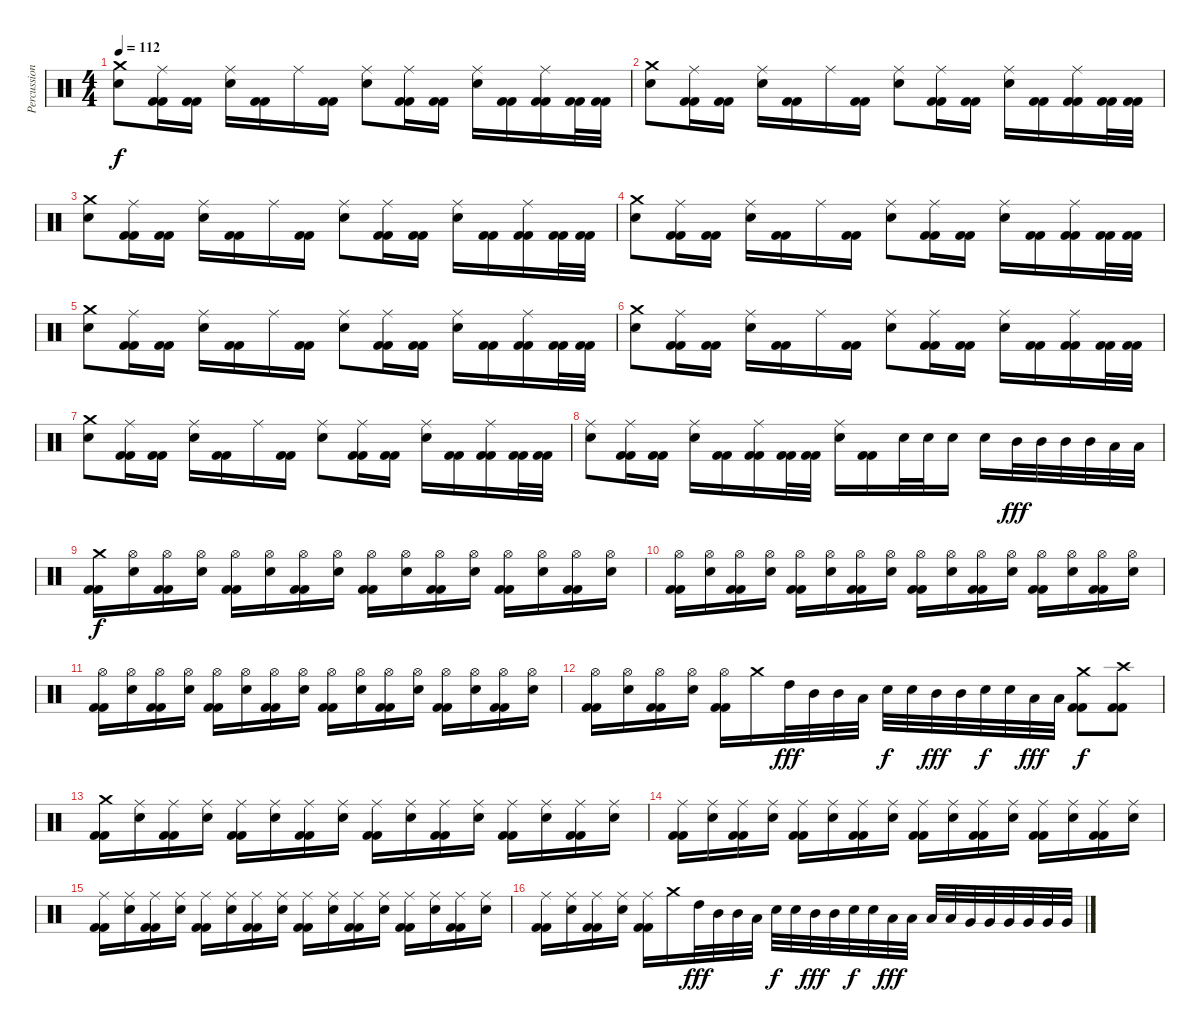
\track ("Percussion" "Percussion") {instrument percussion}
\staff {score}
\articulation defaults
\ts (4 4)
\tempo 112
\clef neutral
\ks c
("Electric Snare (hit)" "Crash medium (hit)").8{dy f} ("Ride (middle)" "Kick (hit) 2" "Kick (hit) 2").16 ("Kick (hit) 2" "Kick (hit) 2").16 ("Ride (middle)" "Electric Snare (hit)").16 ("Kick (hit) 2" "Kick (hit) 2").16 "Ride (middle)".16 ("Kick (hit) 2" "Kick (hit) 2").16 ("Ride (middle)" "Electric Snare (hit)").8 ("Ride (middle)" "Kick (hit) 2" "Kick (hit) 2").16 ("Kick (hit) 2" "Kick (hit) 2").16 ("Ride (middle)" "Electric Snare (hit)").16 ("Kick (hit) 2" "Kick (hit) 2").16 ("Ride (middle)" "Kick (hit) 2" "Kick (hit) 2").16 ("Kick (hit) 2" "Kick (hit) 2").32 ("Kick (hit) 2" "Kick (hit) 2").32 |
("Electric Snare (hit)" "Crash medium (hit)").8 ("Ride (middle)" "Kick (hit) 2" "Kick (hit) 2").16 ("Kick (hit) 2" "Kick (hit) 2").16 ("Ride (middle)" "Electric Snare (hit)").16 ("Kick (hit) 2" "Kick (hit) 2").16 "Ride (middle)".16 ("Kick (hit) 2" "Kick (hit) 2").16 ("Ride (middle)" "Electric Snare (hit)").8 ("Ride (middle)" "Kick (hit) 2" "Kick (hit) 2").16 ("Kick (hit) 2" "Kick (hit) 2").16 ("Ride (middle)" "Electric Snare (hit)").16 ("Kick (hit) 2" "Kick (hit) 2").16 ("Ride (middle)" "Kick (hit) 2" "Kick (hit) 2").16 ("Kick (hit) 2" "Kick (hit) 2").32 ("Kick (hit) 2" "Kick (hit) 2").32 |
("Electric Snare (hit)" "Crash medium (hit)").8 ("Ride (middle)" "Kick (hit) 2" "Kick (hit) 2").16 ("Kick (hit) 2" "Kick (hit) 2").16 ("Ride (middle)" "Electric Snare (hit)").16 ("Kick (hit) 2" "Kick (hit) 2").16 "Ride (middle)".16 ("Kick (hit) 2" "Kick (hit) 2").16 ("Ride (middle)" "Electric Snare (hit)").8 ("Ride (middle)" "Kick (hit) 2" "Kick (hit) 2").16 ("Kick (hit) 2" "Kick (hit) 2").16 ("Ride (middle)" "Electric Snare (hit)").16 ("Kick (hit) 2" "Kick (hit) 2").16 ("Ride (middle)" "Kick (hit) 2" "Kick (hit) 2").16 ("Kick (hit) 2" "Kick (hit) 2").32 ("Kick (hit) 2" "Kick (hit) 2").32 |
("Electric Snare (hit)" "Crash medium (hit)").8 ("Ride (middle)" "Kick (hit) 2" "Kick (hit) 2").16 ("Kick (hit) 2" "Kick (hit) 2").16 ("Ride (middle)" "Electric Snare (hit)").16 ("Kick (hit) 2" "Kick (hit) 2").16 "Ride (middle)".16 ("Kick (hit) 2" "Kick (hit) 2").16 ("Ride (middle)" "Electric Snare (hit)").8 ("Ride (middle)" "Kick (hit) 2" "Kick (hit) 2").16 ("Kick (hit) 2" "Kick (hit) 2").16 ("Ride (middle)" "Electric Snare (hit)").16 ("Kick (hit) 2" "Kick (hit) 2").16 ("Ride (middle)" "Kick (hit) 2" "Kick (hit) 2").16 ("Kick (hit) 2" "Kick (hit) 2").32 ("Kick (hit) 2" "Kick (hit) 2").32 |
("Electric Snare (hit)" "Crash medium (hit)").8 ("Ride (middle)" "Kick (hit) 2" "Kick (hit) 2").16 ("Kick (hit) 2" "Kick (hit) 2").16 ("Ride (middle)" "Electric Snare (hit)").16 ("Kick (hit) 2" "Kick (hit) 2").16 "Ride (middle)".16 ("Kick (hit) 2" "Kick (hit) 2").16 ("Ride (middle)" "Electric Snare (hit)").8 ("Ride (middle)" "Kick (hit) 2" "Kick (hit) 2").16 ("Kick (hit) 2" "Kick (hit) 2").16 ("Ride (middle)" "Electric Snare (hit)").16 ("Kick (hit) 2" "Kick (hit) 2").16 ("Ride (middle)" "Kick (hit) 2" "Kick (hit) 2").16 ("Kick (hit) 2" "Kick (hit) 2").32 ("Kick (hit) 2" "Kick (hit) 2").32 |
("Electric Snare (hit)" "Crash medium (hit)").8 ("Ride (middle)" "Kick (hit) 2" "Kick (hit) 2").16 ("Kick (hit) 2" "Kick (hit) 2").16 ("Ride (middle)" "Electric Snare (hit)").16 ("Kick (hit) 2" "Kick (hit) 2").16 "Ride (middle)".16 ("Kick (hit) 2" "Kick (hit) 2").16 ("Ride (middle)" "Electric Snare (hit)").8 ("Ride (middle)" "Kick (hit) 2" "Kick (hit) 2").16 ("Kick (hit) 2" "Kick (hit) 2").16 ("Ride (middle)" "Electric Snare (hit)").16 ("Kick (hit) 2" "Kick (hit) 2").16 ("Ride (middle)" "Kick (hit) 2" "Kick (hit) 2").16 ("Kick (hit) 2" "Kick (hit) 2").32 ("Kick (hit) 2" "Kick (hit) 2").32 |
("Electric Snare (hit)" "Crash medium (hit)").8 ("Ride (middle)" "Kick (hit) 2" "Kick (hit) 2").16 ("Kick (hit) 2" "Kick (hit) 2").16 ("Ride (middle)" "Electric Snare (hit)").16 ("Kick (hit) 2" "Kick (hit) 2").16 "Ride (middle)".16 ("Kick (hit) 2" "Kick (hit) 2").16 ("Ride (middle)" "Electric Snare (hit)").8 ("Ride (middle)" "Kick (hit) 2" "Kick (hit) 2").16 ("Kick (hit) 2" "Kick (hit) 2").16 ("Ride (middle)" "Electric Snare (hit)").16 ("Kick (hit) 2" "Kick (hit) 2").16 ("Ride (middle)" "Kick (hit) 2" "Kick (hit) 2").16 ("Kick (hit) 2" "Kick (hit) 2").32 ("Kick (hit) 2" "Kick (hit) 2").32 |
("Electric Snare (hit)" "Ride (middle)").8 ("Ride (middle)" "Kick (hit) 2" "Kick (hit) 2").16 ("Kick (hit) 2" "Kick (hit) 2").16 ("Ride (middle)" "Electric Snare (hit)").16 ("Kick (hit) 2" "Kick (hit) 2").16 ("Ride (middle)" "Kick (hit) 2" "Kick (hit) 2").16 ("Kick (hit) 2" "Kick (hit) 2").32 ("Kick (hit) 2" "Kick (hit) 2").32 ("Ride (middle)" "Electric Snare (hit)").16 ("Kick (hit) 2" "Kick (hit) 2").16 "Electric Snare (hit)".32 "Electric Snare (hit)".32 "Electric Snare (hit)".16 "Electric Snare (hit)".16 "Mid Tom (hit)".32{dy fff} "Mid Tom (hit)".32 "Mid Tom (hit)".32 "Mid Tom (hit)".32 "Low Tom (hit)".32 "Low Tom (hit)".32 |
("Kick (hit) 2" "Kick (hit) 2" "Crash medium (hit)").16{dy f} ("Hi-Hat (open)" "Electric Snare (hit)").16 ("Hi-Hat (open)" "Kick (hit) 2" "Kick (hit) 2").16 ("Hi-Hat (open)" "Electric Snare (hit)").16 ("Hi-Hat (open)" "Kick (hit) 2" "Kick (hit) 2").16 ("Hi-Hat (open)" "Electric Snare (hit)").16 ("Hi-Hat (open)" "Kick (hit) 2" "Kick (hit) 2").16 ("Hi-Hat (open)" "Electric Snare (hit)").16 ("Hi-Hat (open)" "Kick (hit) 2" "Kick (hit) 2").16 ("Hi-Hat (open)" "Electric Snare (hit)").16 ("Hi-Hat (open)" "Kick (hit) 2" "Kick (hit) 2").16 ("Hi-Hat (open)" "Electric Snare (hit)").16 ("Hi-Hat (open)" "Kick (hit) 2" "Kick (hit) 2").16 ("Hi-Hat (open)" "Electric Snare (hit)").16 ("Hi-Hat (open)" "Kick (hit) 2" "Kick (hit) 2").16 ("Hi-Hat (open)" "Electric Snare (hit)").16 |
("Kick (hit) 2" "Kick (hit) 2" "Hi-Hat (open)").16 ("Hi-Hat (open)" "Electric Snare (hit)").16 ("Hi-Hat (open)" "Kick (hit) 2" "Kick (hit) 2").16 ("Hi-Hat (open)" "Electric Snare (hit)").16 ("Hi-Hat (open)" "Kick (hit) 2" "Kick (hit) 2").16 ("Hi-Hat (open)" "Electric Snare (hit)").16 ("Hi-Hat (open)" "Kick (hit) 2" "Kick (hit) 2").16 ("Hi-Hat (open)" "Electric Snare (hit)").16 ("Hi-Hat (open)" "Kick (hit) 2" "Kick (hit) 2").16 ("Hi-Hat (open)" "Electric Snare (hit)").16 ("Hi-Hat (open)" "Kick (hit) 2" "Kick (hit) 2").16 ("Hi-Hat (open)" "Electric Snare (hit)").16 ("Hi-Hat (open)" "Kick (hit) 2" "Kick (hit) 2").16 ("Hi-Hat (open)" "Electric Snare (hit)").16 ("Hi-Hat (open)" "Kick (hit) 2" "Kick (hit) 2").16 ("Hi-Hat (open)" "Electric Snare (hit)").16 |
("Kick (hit) 2" "Kick (hit) 2" "Hi-Hat (open)").16 ("Hi-Hat (open)" "Electric Snare (hit)").16 ("Hi-Hat (open)" "Kick (hit) 2" "Kick (hit) 2").16 ("Hi-Hat (open)" "Electric Snare (hit)").16 ("Hi-Hat (open)" "Kick (hit) 2" "Kick (hit) 2").16 ("Hi-Hat (open)" "Electric Snare (hit)").16 ("Hi-Hat (open)" "Kick (hit) 2" "Kick (hit) 2").16 ("Hi-Hat (open)" "Electric Snare (hit)").16 ("Hi-Hat (open)" "Kick (hit) 2" "Kick (hit) 2").16 ("Hi-Hat (open)" "Electric Snare (hit)").16 ("Hi-Hat (open)" "Kick (hit) 2" "Kick (hit) 2").16 ("Hi-Hat (open)" "Electric Snare (hit)").16 ("Hi-Hat (open)" "Kick (hit) 2" "Kick (hit) 2").16 ("Hi-Hat (open)" "Electric Snare (hit)").16 ("Hi-Hat (open)" "Kick (hit) 2" "Kick (hit) 2").16 ("Hi-Hat (open)" "Electric Snare (hit)").16 |
("Kick (hit) 2" "Kick (hit) 2" "Hi-Hat (open)").16 ("Hi-Hat (open)" "Electric Snare (hit)").16 ("Hi-Hat (open)" "Kick (hit) 2" "Kick (hit) 2").16 ("Hi-Hat (open)" "Electric Snare (hit)").16 ("Hi-Hat (open)" "Kick (hit) 2" "Kick (hit) 2").16 "Crash medium (hit)".16 "High Tom (hit)".32{dy fff} "Mid Tom (hit)".32 "Mid Tom (hit)".32 "Low Tom (hit)".32 "Electric Snare (hit)".32{dy f} "Electric Snare (hit)".32 "Mid Tom (hit)".32{dy fff} "Mid Tom (hit)".32 "Electric Snare (hit)".32{dy f} "Electric Snare (hit)".32 "Low Tom (hit)".32{dy fff} "Low Tom (hit)".32 ("Kick (hit) 2" "Kick (hit) 2" "Crash medium (hit)").8{dy f} ("Kick (hit) 2" "Kick (hit) 2" "Crash high (hit)").8 |
("Kick (hit) 2" "Kick (hit) 2" "Crash medium (hit)").16 ("Ride (middle)" "Electric Snare (hit)").16 ("Ride (middle)" "Kick (hit) 2" "Kick (hit) 2").16 ("Ride (middle)" "Electric Snare (hit)").16 ("Ride (middle)" "Kick (hit) 2" "Kick (hit) 2").16 ("Ride (middle)" "Electric Snare (hit)").16 ("Ride (middle)" "Kick (hit) 2" "Kick (hit) 2").16 ("Ride (middle)" "Electric Snare (hit)").16 ("Ride (middle)" "Kick (hit) 2" "Kick (hit) 2").16 ("Ride (middle)" "Electric Snare (hit)").16 ("Ride (middle)" "Kick (hit) 2" "Kick (hit) 2").16 ("Ride (middle)" "Electric Snare (hit)").16 ("Ride (middle)" "Kick (hit) 2" "Kick (hit) 2").16 ("Ride (middle)" "Electric Snare (hit)").16 ("Ride (middle)" "Kick (hit) 2" "Kick (hit) 2").16 ("Ride (middle)" "Electric Snare (hit)").16 |
("Kick (hit) 2" "Kick (hit) 2" "Ride (middle)").16 ("Ride (middle)" "Electric Snare (hit)").16 ("Ride (middle)" "Kick (hit) 2" "Kick (hit) 2").16 ("Ride (middle)" "Electric Snare (hit)").16 ("Ride (middle)" "Kick (hit) 2" "Kick (hit) 2").16 ("Ride (middle)" "Electric Snare (hit)").16 ("Ride (middle)" "Kick (hit) 2" "Kick (hit) 2").16 ("Ride (middle)" "Electric Snare (hit)").16 ("Ride (middle)" "Kick (hit) 2" "Kick (hit) 2").16 ("Ride (middle)" "Electric Snare (hit)").16 ("Ride (middle)" "Kick (hit) 2" "Kick (hit) 2").16 ("Ride (middle)" "Electric Snare (hit)").16 ("Ride (middle)" "Kick (hit) 2" "Kick (hit) 2").16 ("Ride (middle)" "Electric Snare (hit)").16 ("Ride (middle)" "Kick (hit) 2" "Kick (hit) 2").16 ("Ride (middle)" "Electric Snare (hit)").16 |
("Kick (hit) 2" "Kick (hit) 2" "Ride (middle)").16 ("Ride (middle)" "Electric Snare (hit)").16 ("Ride (middle)" "Kick (hit) 2" "Kick (hit) 2").16 ("Ride (middle)" "Electric Snare (hit)").16 ("Ride (middle)" "Kick (hit) 2" "Kick (hit) 2").16 ("Ride (middle)" "Electric Snare (hit)").16 ("Ride (middle)" "Kick (hit) 2" "Kick (hit) 2").16 ("Ride (middle)" "Electric Snare (hit)").16 ("Ride (middle)" "Kick (hit) 2" "Kick (hit) 2").16 ("Ride (middle)" "Electric Snare (hit)").16 ("Ride (middle)" "Kick (hit) 2" "Kick (hit) 2").16 ("Ride (middle)" "Electric Snare (hit)").16 ("Ride (middle)" "Kick (hit) 2" "Kick (hit) 2").16 ("Ride (middle)" "Electric Snare (hit)").16 ("Ride (middle)" "Kick (hit) 2" "Kick (hit) 2").16 ("Ride (middle)" "Electric Snare (hit)").16 |
("Kick (hit) 2" "Kick (hit) 2" "Ride (middle)").16 ("Ride (middle)" "Electric Snare (hit)").16 ("Ride (middle)" "Kick (hit) 2" "Kick (hit) 2").16 ("Ride (middle)" "Electric Snare (hit)").16 ("Ride (middle)" "Kick (hit) 2" "Kick (hit) 2").16 "Crash medium (hit)".16 "High Tom (hit)".32{dy fff} "Mid Tom (hit)".32 "Mid Tom (hit)".32 "Low Tom (hit)".32 "Electric Snare (hit)".32{dy f} "Electric Snare (hit)".32 "Mid Tom (hit)".32{dy fff} "Mid Tom (hit)".32 "Electric Snare (hit)".32{dy f} "Electric Snare (hit)".32 "Low Tom (hit)".32{dy fff} "Low Tom (hit)".32 "Low Tom (hit)".32 "Low Tom (hit)".32 "Very Low Tom (hit)".32 "Very Low Tom (hit)".32 "Very Low Tom (hit)".32 "Very Low Tom (hit)".32 "Very Low Tom (hit)".32 "Very Low Tom (hit)".32
